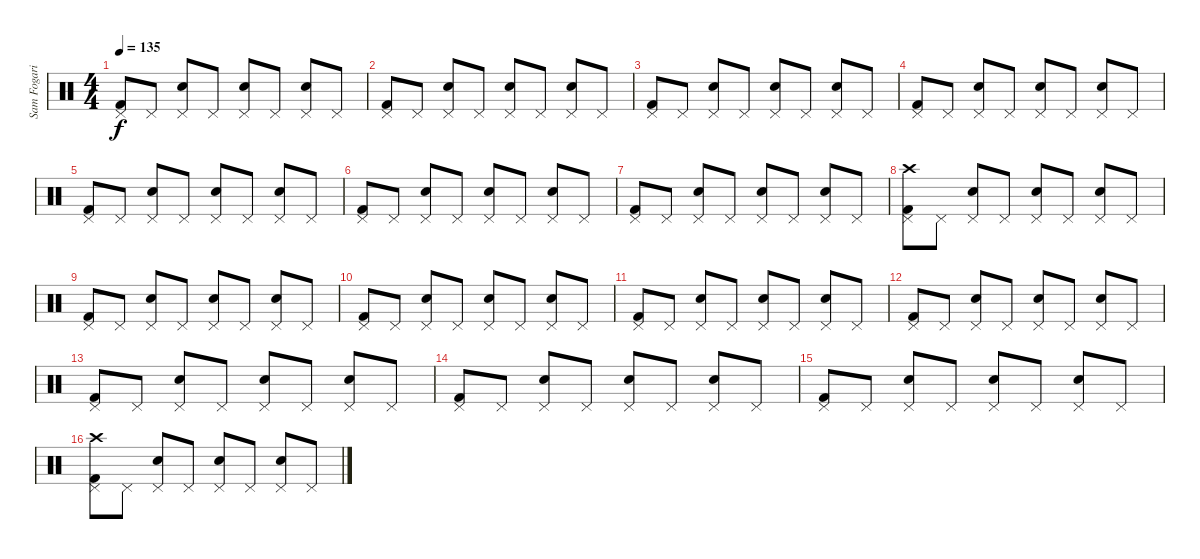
\track ("Sam Fogarino" "Sam Fogari") {instrument percussion}
\staff {score}
\articulation defaults
\ts (4 4)
\tempo 135
\clef neutral
\ks c
("Kick (hit) 2" "Pedal Hi-Hat (hit)").8{dy f} "Pedal Hi-Hat (hit)".8 ("Electric Snare (hit)" "Pedal Hi-Hat (hit)").8 "Pedal Hi-Hat (hit)".8 ("Electric Snare (hit)" "Pedal Hi-Hat (hit)").8 "Pedal Hi-Hat (hit)".8 ("Electric Snare (hit)" "Pedal Hi-Hat (hit)").8 "Pedal Hi-Hat (hit)".8 |
("Kick (hit) 2" "Pedal Hi-Hat (hit)").8 "Pedal Hi-Hat (hit)".8 ("Electric Snare (hit)" "Pedal Hi-Hat (hit)").8 "Pedal Hi-Hat (hit)".8 ("Electric Snare (hit)" "Pedal Hi-Hat (hit)").8 "Pedal Hi-Hat (hit)".8 ("Electric Snare (hit)" "Pedal Hi-Hat (hit)").8 "Pedal Hi-Hat (hit)".8 |
("Kick (hit) 2" "Pedal Hi-Hat (hit)").8 "Pedal Hi-Hat (hit)".8 ("Electric Snare (hit)" "Pedal Hi-Hat (hit)").8 "Pedal Hi-Hat (hit)".8 ("Electric Snare (hit)" "Pedal Hi-Hat (hit)").8 "Pedal Hi-Hat (hit)".8 ("Electric Snare (hit)" "Pedal Hi-Hat (hit)").8 "Pedal Hi-Hat (hit)".8 |
("Kick (hit) 2" "Pedal Hi-Hat (hit)").8 "Pedal Hi-Hat (hit)".8 ("Electric Snare (hit)" "Pedal Hi-Hat (hit)").8 "Pedal Hi-Hat (hit)".8 ("Electric Snare (hit)" "Pedal Hi-Hat (hit)").8 "Pedal Hi-Hat (hit)".8 ("Electric Snare (hit)" "Pedal Hi-Hat (hit)").8 "Pedal Hi-Hat (hit)".8 |
("Kick (hit) 2" "Pedal Hi-Hat (hit)").8 "Pedal Hi-Hat (hit)".8 ("Electric Snare (hit)" "Pedal Hi-Hat (hit)").8 "Pedal Hi-Hat (hit)".8 ("Electric Snare (hit)" "Pedal Hi-Hat (hit)").8 "Pedal Hi-Hat (hit)".8 ("Electric Snare (hit)" "Pedal Hi-Hat (hit)").8 "Pedal Hi-Hat (hit)".8 |
("Kick (hit) 2" "Pedal Hi-Hat (hit)").8 "Pedal Hi-Hat (hit)".8 ("Electric Snare (hit)" "Pedal Hi-Hat (hit)").8 "Pedal Hi-Hat (hit)".8 ("Electric Snare (hit)" "Pedal Hi-Hat (hit)").8 "Pedal Hi-Hat (hit)".8 ("Electric Snare (hit)" "Pedal Hi-Hat (hit)").8 "Pedal Hi-Hat (hit)".8 |
("Kick (hit) 2" "Pedal Hi-Hat (hit)").8 "Pedal Hi-Hat (hit)".8 ("Electric Snare (hit)" "Pedal Hi-Hat (hit)").8 "Pedal Hi-Hat (hit)".8 ("Electric Snare (hit)" "Pedal Hi-Hat (hit)").8 "Pedal Hi-Hat (hit)".8 ("Electric Snare (hit)" "Pedal Hi-Hat (hit)").8 "Pedal Hi-Hat (hit)".8 |
("Crash high (hit)" "Kick (hit) 2" "Pedal Hi-Hat (hit)").8 "Pedal Hi-Hat (hit)".8 ("Electric Snare (hit)" "Pedal Hi-Hat (hit)").8 "Pedal Hi-Hat (hit)".8 ("Electric Snare (hit)" "Pedal Hi-Hat (hit)").8 "Pedal Hi-Hat (hit)".8 ("Electric Snare (hit)" "Pedal Hi-Hat (hit)").8 "Pedal Hi-Hat (hit)".8 |
("Kick (hit) 2" "Pedal Hi-Hat (hit)").8 "Pedal Hi-Hat (hit)".8 ("Electric Snare (hit)" "Pedal Hi-Hat (hit)").8 "Pedal Hi-Hat (hit)".8 ("Electric Snare (hit)" "Pedal Hi-Hat (hit)").8 "Pedal Hi-Hat (hit)".8 ("Electric Snare (hit)" "Pedal Hi-Hat (hit)").8 "Pedal Hi-Hat (hit)".8 |
("Kick (hit) 2" "Pedal Hi-Hat (hit)").8 "Pedal Hi-Hat (hit)".8 ("Electric Snare (hit)" "Pedal Hi-Hat (hit)").8 "Pedal Hi-Hat (hit)".8 ("Electric Snare (hit)" "Pedal Hi-Hat (hit)").8 "Pedal Hi-Hat (hit)".8 ("Electric Snare (hit)" "Pedal Hi-Hat (hit)").8 "Pedal Hi-Hat (hit)".8 |
("Kick (hit) 2" "Pedal Hi-Hat (hit)").8 "Pedal Hi-Hat (hit)".8 ("Electric Snare (hit)" "Pedal Hi-Hat (hit)").8 "Pedal Hi-Hat (hit)".8 ("Electric Snare (hit)" "Pedal Hi-Hat (hit)").8 "Pedal Hi-Hat (hit)".8 ("Electric Snare (hit)" "Pedal Hi-Hat (hit)").8 "Pedal Hi-Hat (hit)".8 |
("Kick (hit) 2" "Pedal Hi-Hat (hit)").8 "Pedal Hi-Hat (hit)".8 ("Electric Snare (hit)" "Pedal Hi-Hat (hit)").8 "Pedal Hi-Hat (hit)".8 ("Electric Snare (hit)" "Pedal Hi-Hat (hit)").8 "Pedal Hi-Hat (hit)".8 ("Electric Snare (hit)" "Pedal Hi-Hat (hit)").8 "Pedal Hi-Hat (hit)".8 |
("Kick (hit) 2" "Pedal Hi-Hat (hit)").8 "Pedal Hi-Hat (hit)".8 ("Electric Snare (hit)" "Pedal Hi-Hat (hit)").8 "Pedal Hi-Hat (hit)".8 ("Electric Snare (hit)" "Pedal Hi-Hat (hit)").8 "Pedal Hi-Hat (hit)".8 ("Electric Snare (hit)" "Pedal Hi-Hat (hit)").8 "Pedal Hi-Hat (hit)".8 |
("Kick (hit) 2" "Pedal Hi-Hat (hit)").8 "Pedal Hi-Hat (hit)".8 ("Electric Snare (hit)" "Pedal Hi-Hat (hit)").8 "Pedal Hi-Hat (hit)".8 ("Electric Snare (hit)" "Pedal Hi-Hat (hit)").8 "Pedal Hi-Hat (hit)".8 ("Electric Snare (hit)" "Pedal Hi-Hat (hit)").8 "Pedal Hi-Hat (hit)".8 |
("Kick (hit) 2" "Pedal Hi-Hat (hit)").8 "Pedal Hi-Hat (hit)".8 ("Electric Snare (hit)" "Pedal Hi-Hat (hit)").8 "Pedal Hi-Hat (hit)".8 ("Electric Snare (hit)" "Pedal Hi-Hat (hit)").8 "Pedal Hi-Hat (hit)".8 ("Electric Snare (hit)" "Pedal Hi-Hat (hit)").8 "Pedal Hi-Hat (hit)".8 |
("Crash high (hit)" "Kick (hit) 2" "Pedal Hi-Hat (hit)").8 "Pedal Hi-Hat (hit)".8 ("Electric Snare (hit)" "Pedal Hi-Hat (hit)").8 "Pedal Hi-Hat (hit)".8 ("Electric Snare (hit)" "Pedal Hi-Hat (hit)").8 "Pedal Hi-Hat (hit)".8 ("Electric Snare (hit)" "Pedal Hi-Hat (hit)").8 "Pedal Hi-Hat (hit)".8
